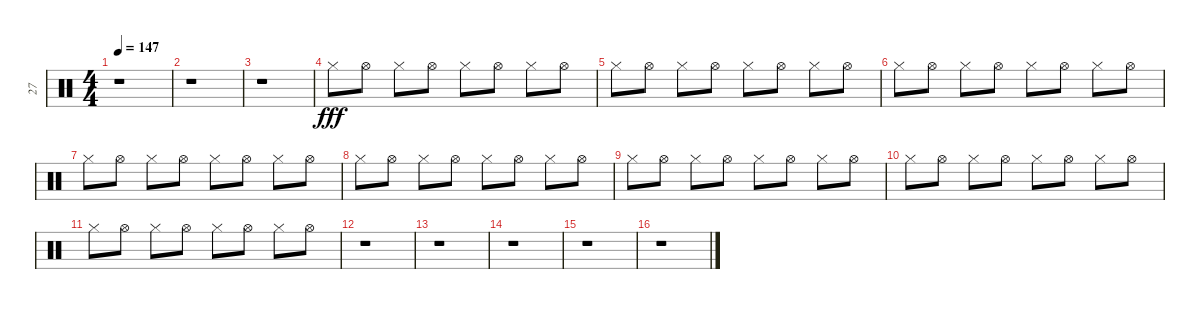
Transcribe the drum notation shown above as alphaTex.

\track ("27" "27") {instrument percussion}
\staff {score}
\articulation defaults
\ts (4 4)
\tempo 147
\clef neutral
\ks c
r.1{dy fff} |
r.1 |
r.1 |
"Hi-Hat (closed)".8 "Hi-Hat (open)".8 "Hi-Hat (closed)".8 "Hi-Hat (open)".8 "Hi-Hat (closed)".8 "Hi-Hat (open)".8 "Hi-Hat (closed)".8 "Hi-Hat (open)".8 |
"Hi-Hat (closed)".8 "Hi-Hat (open)".8 "Hi-Hat (closed)".8 "Hi-Hat (open)".8 "Hi-Hat (closed)".8 "Hi-Hat (open)".8 "Hi-Hat (closed)".8 "Hi-Hat (open)".8 |
"Hi-Hat (closed)".8 "Hi-Hat (open)".8 "Hi-Hat (closed)".8 "Hi-Hat (open)".8 "Hi-Hat (closed)".8 "Hi-Hat (open)".8 "Hi-Hat (closed)".8 "Hi-Hat (open)".8 |
"Hi-Hat (closed)".8 "Hi-Hat (open)".8 "Hi-Hat (closed)".8 "Hi-Hat (open)".8 "Hi-Hat (closed)".8 "Hi-Hat (open)".8 "Hi-Hat (closed)".8 "Hi-Hat (open)".8 |
"Hi-Hat (closed)".8 "Hi-Hat (open)".8 "Hi-Hat (closed)".8 "Hi-Hat (open)".8 "Hi-Hat (closed)".8 "Hi-Hat (open)".8 "Hi-Hat (closed)".8 "Hi-Hat (open)".8 |
"Hi-Hat (closed)".8 "Hi-Hat (open)".8 "Hi-Hat (closed)".8 "Hi-Hat (open)".8 "Hi-Hat (closed)".8 "Hi-Hat (open)".8 "Hi-Hat (closed)".8 "Hi-Hat (open)".8 |
"Hi-Hat (closed)".8 "Hi-Hat (open)".8 "Hi-Hat (closed)".8 "Hi-Hat (open)".8 "Hi-Hat (closed)".8 "Hi-Hat (open)".8 "Hi-Hat (closed)".8 "Hi-Hat (open)".8 |
"Hi-Hat (closed)".8 "Hi-Hat (open)".8 "Hi-Hat (closed)".8 "Hi-Hat (open)".8 "Hi-Hat (closed)".8 "Hi-Hat (open)".8 "Hi-Hat (closed)".8 "Hi-Hat (open)".8 |
r.1 |
r.1 |
r.1 |
r.1 |
r.1
